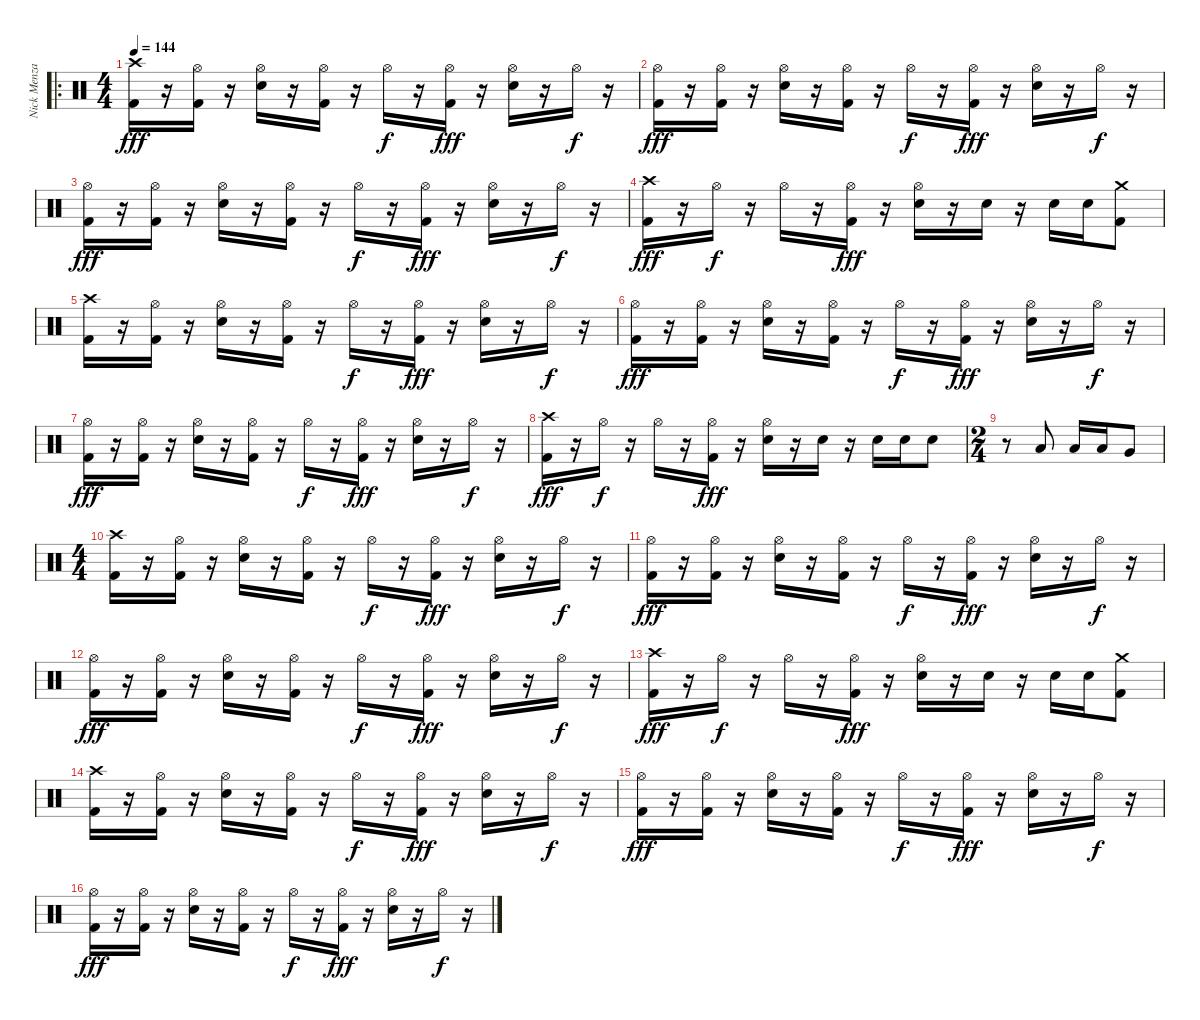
\track ("Nick Menza" "Nick Menza") {instrument percussion}
\staff {score}
\articulation defaults
\ro
\ts (4 4)
\tempo 144
\clef neutral
\ks c
("Kick (hit) 2" "Crash high (hit)").16{dy fff} r.16 ("Kick (hit) 2" "Hi-Hat (open)").16 r.16 ("Electric Snare (hit)" "Hi-Hat (open)").16 r.16 ("Kick (hit) 2" "Hi-Hat (open)").16 r.16 "Hi-Hat (open)".16{dy f} r.16 ("Kick (hit) 2" "Hi-Hat (open)").16{dy fff} r.16 ("Electric Snare (hit)" "Hi-Hat (open)").16 r.16 "Hi-Hat (open)".16{dy f} r.16 |
("Kick (hit) 2" "Hi-Hat (open)").16{dy fff} r.16 ("Kick (hit) 2" "Hi-Hat (open)").16 r.16 ("Electric Snare (hit)" "Hi-Hat (open)").16 r.16 ("Kick (hit) 2" "Hi-Hat (open)").16 r.16 "Hi-Hat (open)".16{dy f} r.16 ("Kick (hit) 2" "Hi-Hat (open)").16{dy fff} r.16 ("Electric Snare (hit)" "Hi-Hat (open)").16 r.16 "Hi-Hat (open)".16{dy f} r.16 |
("Kick (hit) 2" "Hi-Hat (open)").16{dy fff} r.16 ("Kick (hit) 2" "Hi-Hat (open)").16 r.16 ("Electric Snare (hit)" "Hi-Hat (open)").16 r.16 ("Kick (hit) 2" "Hi-Hat (open)").16 r.16 "Hi-Hat (open)".16{dy f} r.16 ("Kick (hit) 2" "Hi-Hat (open)").16{dy fff} r.16 ("Electric Snare (hit)" "Hi-Hat (open)").16 r.16 "Hi-Hat (open)".16{dy f} r.16 |
("Kick (hit) 2" "Crash high (hit)").16{dy fff} r.16 "Hi-Hat (open)".16{dy f} r.16 "Hi-Hat (open)".16 r.16 ("Kick (hit) 2" "Hi-Hat (open)").16{dy fff} r.16 ("Electric Snare (hit)" "Hi-Hat (open)").16 r.16 "Electric Snare (hit)".16 r.16 "Electric Snare (hit)".16 "Electric Snare (hit)".16 ("Kick (hit) 2" "Crash medium (hit)").8 |
("Kick (hit) 2" "Crash high (hit)").16 r.16 ("Kick (hit) 2" "Hi-Hat (open)").16 r.16 ("Electric Snare (hit)" "Hi-Hat (open)").16 r.16 ("Kick (hit) 2" "Hi-Hat (open)").16 r.16 "Hi-Hat (open)".16{dy f} r.16 ("Kick (hit) 2" "Hi-Hat (open)").16{dy fff} r.16 ("Electric Snare (hit)" "Hi-Hat (open)").16 r.16 "Hi-Hat (open)".16{dy f} r.16 |
("Kick (hit) 2" "Hi-Hat (open)").16{dy fff} r.16 ("Kick (hit) 2" "Hi-Hat (open)").16 r.16 ("Electric Snare (hit)" "Hi-Hat (open)").16 r.16 ("Kick (hit) 2" "Hi-Hat (open)").16 r.16 "Hi-Hat (open)".16{dy f} r.16 ("Kick (hit) 2" "Hi-Hat (open)").16{dy fff} r.16 ("Electric Snare (hit)" "Hi-Hat (open)").16 r.16 "Hi-Hat (open)".16{dy f} r.16 |
("Kick (hit) 2" "Hi-Hat (open)").16{dy fff} r.16 ("Kick (hit) 2" "Hi-Hat (open)").16 r.16 ("Electric Snare (hit)" "Hi-Hat (open)").16 r.16 ("Kick (hit) 2" "Hi-Hat (open)").16 r.16 "Hi-Hat (open)".16{dy f} r.16 ("Kick (hit) 2" "Hi-Hat (open)").16{dy fff} r.16 ("Electric Snare (hit)" "Hi-Hat (open)").16 r.16 "Hi-Hat (open)".16{dy f} r.16 |
("Kick (hit) 2" "Crash high (hit)").16{dy fff} r.16 "Hi-Hat (open)".16{dy f} r.16 "Hi-Hat (open)".16 r.16 ("Kick (hit) 2" "Hi-Hat (open)").16{dy fff} r.16 ("Electric Snare (hit)" "Hi-Hat (open)").16 r.16 "Electric Snare (hit)".16 r.16 "Electric Snare (hit)".16 "Electric Snare (hit)".16 "Electric Snare (hit)".8 |
\ts (2 4)
r.8 "Low Tom (hit)".8 "Low Tom (hit)".16 "Low Tom (hit)".16 "Very Low Tom (hit)".8 |
\ts (4 4)
("Kick (hit) 2" "Crash high (hit)").16 r.16 ("Kick (hit) 2" "Hi-Hat (open)").16 r.16 ("Electric Snare (hit)" "Hi-Hat (open)").16 r.16 ("Kick (hit) 2" "Hi-Hat (open)").16 r.16 "Hi-Hat (open)".16{dy f} r.16 ("Kick (hit) 2" "Hi-Hat (open)").16{dy fff} r.16 ("Electric Snare (hit)" "Hi-Hat (open)").16 r.16 "Hi-Hat (open)".16{dy f} r.16 |
("Kick (hit) 2" "Hi-Hat (open)").16{dy fff} r.16 ("Kick (hit) 2" "Hi-Hat (open)").16 r.16 ("Electric Snare (hit)" "Hi-Hat (open)").16 r.16 ("Kick (hit) 2" "Hi-Hat (open)").16 r.16 "Hi-Hat (open)".16{dy f} r.16 ("Kick (hit) 2" "Hi-Hat (open)").16{dy fff} r.16 ("Electric Snare (hit)" "Hi-Hat (open)").16 r.16 "Hi-Hat (open)".16{dy f} r.16 |
("Kick (hit) 2" "Hi-Hat (open)").16{dy fff} r.16 ("Kick (hit) 2" "Hi-Hat (open)").16 r.16 ("Electric Snare (hit)" "Hi-Hat (open)").16 r.16 ("Kick (hit) 2" "Hi-Hat (open)").16 r.16 "Hi-Hat (open)".16{dy f} r.16 ("Kick (hit) 2" "Hi-Hat (open)").16{dy fff} r.16 ("Electric Snare (hit)" "Hi-Hat (open)").16 r.16 "Hi-Hat (open)".16{dy f} r.16 |
("Kick (hit) 2" "Crash high (hit)").16{dy fff} r.16 "Hi-Hat (open)".16{dy f} r.16 "Hi-Hat (open)".16 r.16 ("Kick (hit) 2" "Hi-Hat (open)").16{dy fff} r.16 ("Electric Snare (hit)" "Hi-Hat (open)").16 r.16 "Electric Snare (hit)".16 r.16 "Electric Snare (hit)".16 "Electric Snare (hit)".16 ("Kick (hit) 2" "Crash medium (hit)").8 |
("Kick (hit) 2" "Crash high (hit)").16 r.16 ("Kick (hit) 2" "Hi-Hat (open)").16 r.16 ("Electric Snare (hit)" "Hi-Hat (open)").16 r.16 ("Kick (hit) 2" "Hi-Hat (open)").16 r.16 "Hi-Hat (open)".16{dy f} r.16 ("Kick (hit) 2" "Hi-Hat (open)").16{dy fff} r.16 ("Electric Snare (hit)" "Hi-Hat (open)").16 r.16 "Hi-Hat (open)".16{dy f} r.16 |
("Kick (hit) 2" "Hi-Hat (open)").16{dy fff} r.16 ("Kick (hit) 2" "Hi-Hat (open)").16 r.16 ("Electric Snare (hit)" "Hi-Hat (open)").16 r.16 ("Kick (hit) 2" "Hi-Hat (open)").16 r.16 "Hi-Hat (open)".16{dy f} r.16 ("Kick (hit) 2" "Hi-Hat (open)").16{dy fff} r.16 ("Electric Snare (hit)" "Hi-Hat (open)").16 r.16 "Hi-Hat (open)".16{dy f} r.16 |
("Kick (hit) 2" "Hi-Hat (open)").16{dy fff} r.16 ("Kick (hit) 2" "Hi-Hat (open)").16 r.16 ("Electric Snare (hit)" "Hi-Hat (open)").16 r.16 ("Kick (hit) 2" "Hi-Hat (open)").16 r.16 "Hi-Hat (open)".16{dy f} r.16 ("Kick (hit) 2" "Hi-Hat (open)").16{dy fff} r.16 ("Electric Snare (hit)" "Hi-Hat (open)").16 r.16 "Hi-Hat (open)".16{dy f} r.16
